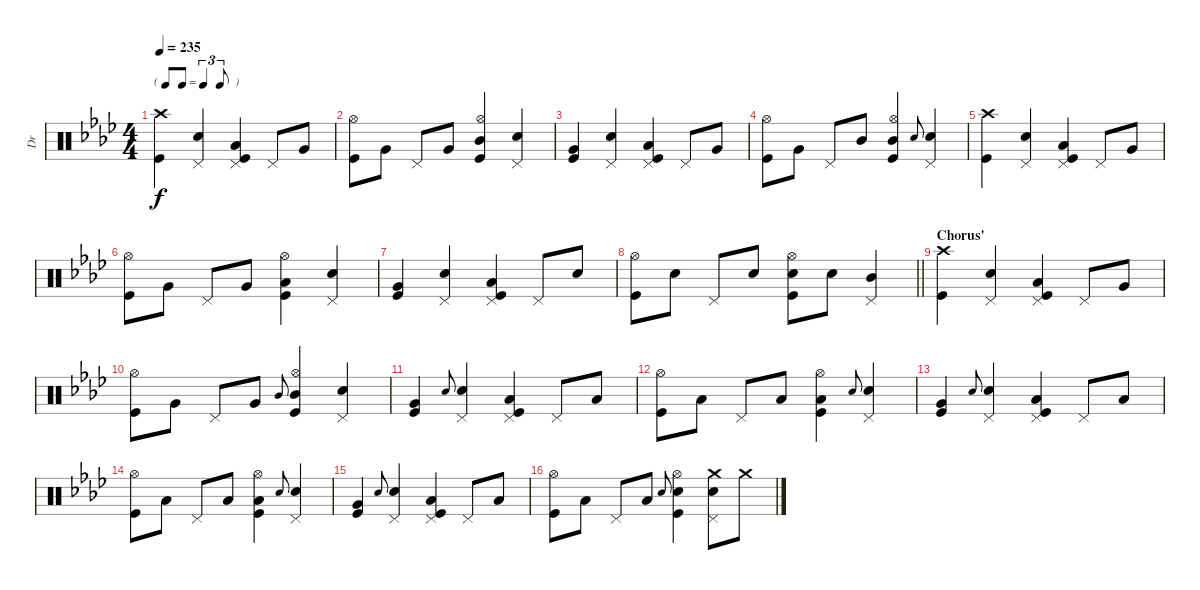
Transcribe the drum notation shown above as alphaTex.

\track ("Dr" "Dr") {instrument percussion}
\staff {score}
\articulation defaults
\ts (4 4)
\tf triplet8th
\tempo 235
\clef neutral
\ks ab
("Crash high (hit)" "Kick (hit)").4{dy f} ("Electric Snare (hit)" "Pedal Hi-Hat (hit)").4 ("Low Floor Tom (hit)" "Kick (hit)" "Pedal Hi-Hat (hit)").4 "Pedal Hi-Hat (hit)".8 "Very Low Tom (hit)".8 |
("Kick (hit)" "Hi-Hat (open)").8 "Very Low Tom (hit)".8 "Pedal Hi-Hat (hit)".8 "Very Low Tom (hit)".8 ("Mid Tom (hit)" "Kick (hit)" "Hi-Hat (open)").4 ("Electric Snare (hit)" "Pedal Hi-Hat (hit)").4 |
("Very Low Tom (hit)" "Kick (hit)").4 ("Electric Snare (hit)" "Pedal Hi-Hat (hit)").4 ("Low Floor Tom (hit)" "Kick (hit)" "Pedal Hi-Hat (hit)").4 "Pedal Hi-Hat (hit)".8 "Very Low Tom (hit)".8 |
("Kick (hit)" "Hi-Hat (open)").8 "Very Low Tom (hit)".8 "Pedal Hi-Hat (hit)".8 "Mid Tom (hit)".8 ("Mid Tom (hit)" "Kick (hit)" "Hi-Hat (open)").4 "Electric Snare (hit)".8{gr onbeat} ("Electric Snare (hit)" "Pedal Hi-Hat (hit)").4 |
("Crash high (hit)" "Kick (hit)").4 ("Electric Snare (hit)" "Pedal Hi-Hat (hit)").4 ("Low Floor Tom (hit)" "Kick (hit)" "Pedal Hi-Hat (hit)").4 "Pedal Hi-Hat (hit)".8 "Very Low Tom (hit)".8 |
("Kick (hit)" "Hi-Hat (open)").8 "Very Low Tom (hit)".8 "Pedal Hi-Hat (hit)".8 "Very Low Tom (hit)".8 ("Low Floor Tom (hit)" "Kick (hit)" "Hi-Hat (open)").4 ("Electric Snare (hit)" "Pedal Hi-Hat (hit)").4 |
("Very Low Tom (hit)" "Kick (hit)").4 ("Electric Snare (hit)" "Pedal Hi-Hat (hit)").4 ("Low Floor Tom (hit)" "Kick (hit)" "Pedal Hi-Hat (hit)").4 "Pedal Hi-Hat (hit)".8 "Electric Snare (hit)".8 |
\barLineRight lightlight
("Kick (hit)" "Hi-Hat (open)").8 "Electric Snare (hit)".8 "Pedal Hi-Hat (hit)".8 "Electric Snare (hit)".8 ("Electric Snare (hit)" "Kick (hit)" "Hi-Hat (open)").8 "Electric Snare (hit)".8 ("Mid Tom (hit)" "Pedal Hi-Hat (hit)").4 |
\section ("" "Chorus'")
("Crash high (hit)" "Kick (hit)").4 ("Electric Snare (hit)" "Pedal Hi-Hat (hit)").4 ("Low Floor Tom (hit)" "Kick (hit)" "Pedal Hi-Hat (hit)").4 "Pedal Hi-Hat (hit)".8 "Very Low Tom (hit)".8 |
("Kick (hit)" "Hi-Hat (open)").8 "Very Low Tom (hit)".8 "Pedal Hi-Hat (hit)".8 "Very Low Tom (hit)".8 "Mid Tom (hit)".8{gr onbeat} ("Mid Tom (hit)" "Kick (hit)" "Hi-Hat (open)").4 ("Electric Snare (hit)" "Pedal Hi-Hat (hit)").4 |
("Very Low Tom (hit)" "Kick (hit)").4 "Electric Snare (hit)".8{gr onbeat} ("Electric Snare (hit)" "Pedal Hi-Hat (hit)").4 ("Low Floor Tom (hit)" "Kick (hit)" "Pedal Hi-Hat (hit)").4 "Pedal Hi-Hat (hit)".8 "Low Floor Tom (hit)".8 |
("Kick (hit)" "Hi-Hat (open)").8 "Low Floor Tom (hit)".8 "Pedal Hi-Hat (hit)".8 "Low Floor Tom (hit)".8 ("Low Floor Tom (hit)" "Kick (hit)" "Hi-Hat (open)").4 "Electric Snare (hit)".8{gr onbeat} ("Electric Snare (hit)" "Pedal Hi-Hat (hit)").4 |
("Very Low Tom (hit)" "Kick (hit)").4 "Electric Snare (hit)".8{gr onbeat} ("Electric Snare (hit)" "Pedal Hi-Hat (hit)").4 ("Low Floor Tom (hit)" "Kick (hit)" "Pedal Hi-Hat (hit)").4 "Pedal Hi-Hat (hit)".8 "Low Floor Tom (hit)".8 |
("Kick (hit)" "Hi-Hat (open)").8 "Low Floor Tom (hit)".8 "Pedal Hi-Hat (hit)".8 "Low Floor Tom (hit)".8 ("Low Floor Tom (hit)" "Kick (hit)" "Hi-Hat (open)").4 "Electric Snare (hit)".8{gr onbeat} ("Electric Snare (hit)" "Pedal Hi-Hat (hit)").4 |
("Very Low Tom (hit)" "Kick (hit)").4 "Electric Snare (hit)".8{gr onbeat} ("Electric Snare (hit)" "Pedal Hi-Hat (hit)").4 ("Low Floor Tom (hit)" "Kick (hit)" "Pedal Hi-Hat (hit)").4 "Pedal Hi-Hat (hit)".8 "Low Floor Tom (hit)".8 |
("Kick (hit)" "Hi-Hat (open)").8 "Low Floor Tom (hit)".8 "Pedal Hi-Hat (hit)".8 "Low Floor Tom (hit)".8 "Electric Snare (hit)".8{gr onbeat} ("Electric Snare (hit)" "Kick (hit)" "Hi-Hat (open)").4 ("Crash medium (hit)" "Electric Snare (hit)" "Pedal Hi-Hat (hit)").8 "Crash medium (hit)".8
